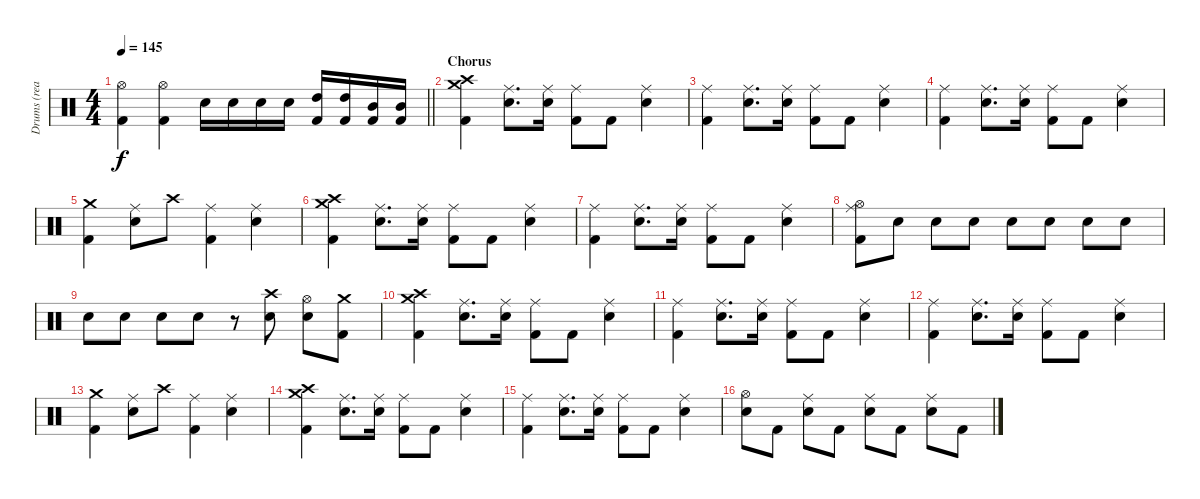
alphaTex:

\track ("Drums (real)" "Drums (rea") {instrument percussion}
\staff {score}
\articulation defaults
\ts (4 4)
\tempo 145
\clef neutral
\barLineRight lightlight
\ks c
("Hi-Hat (open)" "Kick (hit) 2").4{dy f} ("Hi-Hat (open)" "Kick (hit) 2").4 "Snare (hit) 2".16 "Snare (hit) 2".16 "Snare (hit) 2".16 "Snare (hit) 2".16 ("High Tom (hit)" "Kick (hit) 2").16 ("High Tom (hit)" "Kick (hit) 2").16 ("Mid Tom (hit)" "Kick (hit) 2").16 ("Mid Tom (hit)" "Kick (hit) 2").16 |
\section ("" "Chorus")
("Crash high (hit)" "Crash medium (hit)" "Kick (hit) 2").4 ("Ride (middle)" "Snare (hit) 2").8{d} ("Ride (middle)" "Snare (hit) 2").16 ("Ride (middle)" "Kick (hit) 2").8 "Kick (hit) 2".8 ("Ride (middle)" "Snare (hit) 2").4 |
("Ride (middle)" "Kick (hit) 2").4 ("Ride (middle)" "Snare (hit) 2").8{d} ("Ride (middle)" "Snare (hit) 2").16 ("Ride (middle)" "Kick (hit) 2").8 "Kick (hit) 2".8 ("Ride (middle)" "Snare (hit) 2").4 |
("Ride (middle)" "Kick (hit) 2").4 ("Ride (middle)" "Snare (hit) 2").8{d} ("Ride (middle)" "Snare (hit) 2").16 ("Ride (middle)" "Kick (hit) 2").8 "Kick (hit) 2".8 ("Ride (middle)" "Snare (hit) 2").4 |
("Crash medium (hit)" "Kick (hit) 2").4 ("Ride (middle)" "Snare (hit) 2").8 "Crash high (hit)".8 ("Ride (middle)" "Kick (hit) 2").4 ("Ride (middle)" "Snare (hit) 2").4 |
("Crash high (hit)" "Crash medium (hit)" "Kick (hit) 2").4 ("Ride (middle)" "Snare (hit) 2").8{d} ("Ride (middle)" "Snare (hit) 2").16 ("Ride (middle)" "Kick (hit) 2").8 "Kick (hit) 2".8 ("Ride (middle)" "Snare (hit) 2").4 |
("Ride (middle)" "Kick (hit) 2").4 ("Ride (middle)" "Snare (hit) 2").8{d} ("Ride (middle)" "Snare (hit) 2").16 ("Ride (middle)" "Kick (hit) 2").8 "Kick (hit) 2".8 ("Ride (middle)" "Snare (hit) 2").4 |
("Hi-Hat (open)" "Ride (middle)" "Kick (hit) 2").8 "Snare (hit) 2".8{volume 4} "Snare (hit) 2".8{volume 13} "Snare (hit) 2".8 "Snare (hit) 2".8 "Snare (hit) 2".8 "Snare (hit) 2".8 "Snare (hit) 2".8 |
"Snare (hit) 2".8 "Snare (hit) 2".8 "Snare (hit) 2".8 "Snare (hit) 2".8 r.8 ("Crash high (hit)" "Snare (hit) 2").8 ("Hi-Hat (open)" "Snare (hit) 2").8 ("Crash medium (hit)" "Kick (hit) 2").8 |
("Crash high (hit)" "Crash medium (hit)" "Kick (hit) 2").4 ("Ride (middle)" "Snare (hit) 2").8{d} ("Ride (middle)" "Snare (hit) 2").16 ("Ride (middle)" "Kick (hit) 2").8 "Kick (hit) 2".8 ("Ride (middle)" "Snare (hit) 2").4 |
("Ride (middle)" "Kick (hit) 2").4 ("Ride (middle)" "Snare (hit) 2").8{d} ("Ride (middle)" "Snare (hit) 2").16 ("Ride (middle)" "Kick (hit) 2").8 "Kick (hit) 2".8 ("Ride (middle)" "Snare (hit) 2").4 |
("Ride (middle)" "Kick (hit) 2").4 ("Ride (middle)" "Snare (hit) 2").8{d} ("Ride (middle)" "Snare (hit) 2").16 ("Ride (middle)" "Kick (hit) 2").8 "Kick (hit) 2".8 ("Ride (middle)" "Snare (hit) 2").4 |
("Crash medium (hit)" "Kick (hit) 2").4 ("Ride (middle)" "Snare (hit) 2").8 "Crash high (hit)".8 ("Ride (middle)" "Kick (hit) 2").4 ("Ride (middle)" "Snare (hit) 2").4 |
("Crash high (hit)" "Crash medium (hit)" "Kick (hit) 2").4 ("Ride (middle)" "Snare (hit) 2").8{d} ("Ride (middle)" "Snare (hit) 2").16 ("Ride (middle)" "Kick (hit) 2").8 "Kick (hit) 2".8 ("Ride (middle)" "Snare (hit) 2").4 |
("Ride (middle)" "Kick (hit) 2").4 ("Ride (middle)" "Snare (hit) 2").8{d} ("Ride (middle)" "Snare (hit) 2").16 ("Ride (middle)" "Kick (hit) 2").8 "Kick (hit) 2".8 ("Ride (middle)" "Snare (hit) 2").4 |
("Hi-Hat (open)" "Snare (hit) 2").8 "Kick (hit) 2".8 ("Ride (middle)" "Snare (hit) 2").8 "Kick (hit) 2".8 ("Ride (middle)" "Snare (hit) 2").8 "Kick (hit) 2".8 ("Ride (middle)" "Snare (hit) 2").8 "Kick (hit) 2".8
